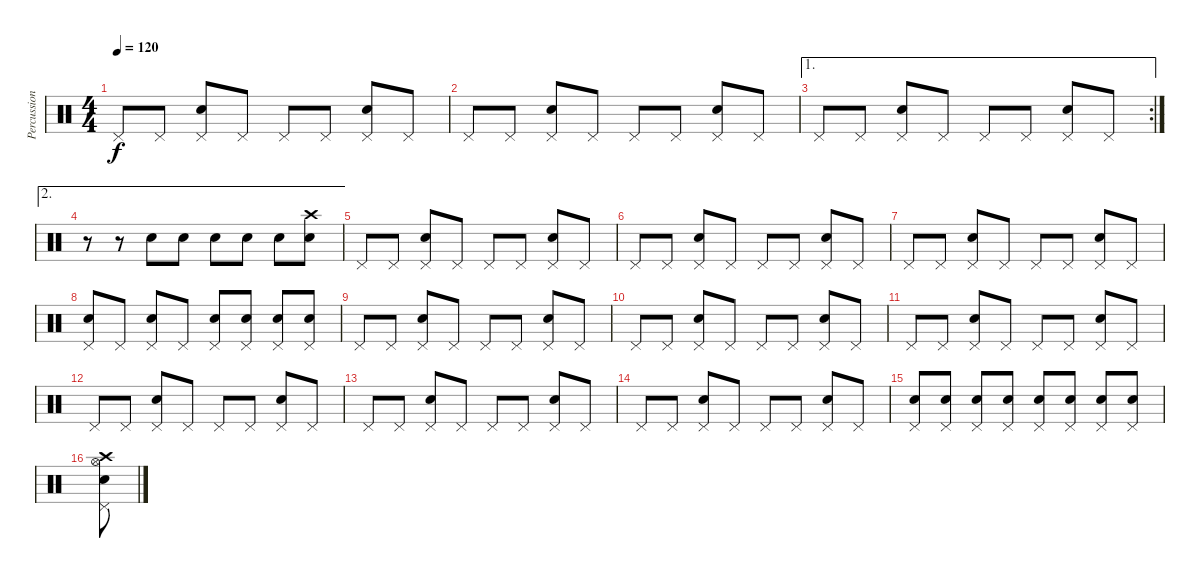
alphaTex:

\track ("Percussions" "Percussion") {instrument percussion}
\staff {score}
\articulation defaults
\ts (4 4)
\tempo 120
\clef neutral
\ks c "Pedal Hi-Hat (hit)".8{dy f} "Pedal Hi-Hat (hit)".8
("Pedal Hi-Hat (hit)" "Electric Snare (hit)").8 "Pedal Hi-Hat (hit)".8 "Pedal Hi-Hat (hit)".8 "Pedal Hi-Hat (hit)".8 ("Pedal Hi-Hat (hit)" "Electric Snare (hit)").8 "Pedal Hi-Hat (hit)".8 |
"Pedal Hi-Hat (hit)".8 "Pedal Hi-Hat (hit)".8 ("Pedal Hi-Hat (hit)" "Electric Snare (hit)").8 "Pedal Hi-Hat (hit)".8 "Pedal Hi-Hat (hit)".8 "Pedal Hi-Hat (hit)".8 ("Pedal Hi-Hat (hit)" "Electric Snare (hit)").8 "Pedal Hi-Hat (hit)".8 |
\ae 1
\rc 2 "Pedal Hi-Hat (hit)".8 "Pedal Hi-Hat (hit)".8
("Pedal Hi-Hat (hit)" "Electric Snare (hit)").8 "Pedal Hi-Hat (hit)".8 "Pedal Hi-Hat (hit)".8 "Pedal Hi-Hat (hit)".8 ("Pedal Hi-Hat (hit)" "Electric Snare (hit)").8 "Pedal Hi-Hat (hit)".8 |
\ae 2
r.8 r.8 "Electric Snare (hit)".8 "Electric Snare (hit)".8 "Electric Snare (hit)".8 "Electric Snare (hit)".8 "Electric Snare (hit)".8 ("Electric Snare (hit)" "Crash high (hit)").8 |
"Pedal Hi-Hat (hit)".8 "Pedal Hi-Hat (hit)".8 ("Pedal Hi-Hat (hit)" "Electric Snare (hit)").8 "Pedal Hi-Hat (hit)".8 "Pedal Hi-Hat (hit)".8 "Pedal Hi-Hat (hit)".8 ("Pedal Hi-Hat (hit)" "Electric Snare (hit)").8 "Pedal Hi-Hat (hit)".8 |
"Pedal Hi-Hat (hit)".8 "Pedal Hi-Hat (hit)".8 ("Pedal Hi-Hat (hit)" "Electric Snare (hit)").8 "Pedal Hi-Hat (hit)".8 "Pedal Hi-Hat (hit)".8 "Pedal Hi-Hat (hit)".8 ("Pedal Hi-Hat (hit)" "Electric Snare (hit)").8 "Pedal Hi-Hat (hit)".8 |
"Pedal Hi-Hat (hit)".8 "Pedal Hi-Hat (hit)".8 ("Pedal Hi-Hat (hit)" "Electric Snare (hit)").8 "Pedal Hi-Hat (hit)".8 "Pedal Hi-Hat (hit)".8 "Pedal Hi-Hat (hit)".8 ("Pedal Hi-Hat (hit)" "Electric Snare (hit)").8 "Pedal Hi-Hat (hit)".8 |
("Pedal Hi-Hat (hit)" "Electric Snare (hit)").8 "Pedal Hi-Hat (hit)".8 ("Pedal Hi-Hat (hit)" "Electric Snare (hit)").8 "Pedal Hi-Hat (hit)".8 ("Pedal Hi-Hat (hit)" "Electric Snare (hit)").8 ("Pedal Hi-Hat (hit)" "Electric Snare (hit)").8 ("Pedal Hi-Hat (hit)" "Electric Snare (hit)").8 ("Pedal Hi-Hat (hit)" "Electric Snare (hit)").8 |
"Pedal Hi-Hat (hit)".8 "Pedal Hi-Hat (hit)".8 ("Pedal Hi-Hat (hit)" "Electric Snare (hit)").8 "Pedal Hi-Hat (hit)".8 "Pedal Hi-Hat (hit)".8 "Pedal Hi-Hat (hit)".8 ("Pedal Hi-Hat (hit)" "Electric Snare (hit)").8 "Pedal Hi-Hat (hit)".8 |
"Pedal Hi-Hat (hit)".8 "Pedal Hi-Hat (hit)".8 ("Pedal Hi-Hat (hit)" "Electric Snare (hit)").8 "Pedal Hi-Hat (hit)".8 "Pedal Hi-Hat (hit)".8 "Pedal Hi-Hat (hit)".8 ("Pedal Hi-Hat (hit)" "Electric Snare (hit)").8 "Pedal Hi-Hat (hit)".8 |
"Pedal Hi-Hat (hit)".8 "Pedal Hi-Hat (hit)".8 ("Pedal Hi-Hat (hit)" "Electric Snare (hit)").8 "Pedal Hi-Hat (hit)".8 "Pedal Hi-Hat (hit)".8 "Pedal Hi-Hat (hit)".8 ("Pedal Hi-Hat (hit)" "Electric Snare (hit)").8 "Pedal Hi-Hat (hit)".8 |
"Pedal Hi-Hat (hit)".8 "Pedal Hi-Hat (hit)".8 ("Pedal Hi-Hat (hit)" "Electric Snare (hit)").8 "Pedal Hi-Hat (hit)".8 "Pedal Hi-Hat (hit)".8 "Pedal Hi-Hat (hit)".8 ("Pedal Hi-Hat (hit)" "Electric Snare (hit)").8 "Pedal Hi-Hat (hit)".8 |
"Pedal Hi-Hat (hit)".8 "Pedal Hi-Hat (hit)".8 ("Pedal Hi-Hat (hit)" "Electric Snare (hit)").8 "Pedal Hi-Hat (hit)".8 "Pedal Hi-Hat (hit)".8 "Pedal Hi-Hat (hit)".8 ("Pedal Hi-Hat (hit)" "Electric Snare (hit)").8 "Pedal Hi-Hat (hit)".8 |
"Pedal Hi-Hat (hit)".8 "Pedal Hi-Hat (hit)".8 ("Pedal Hi-Hat (hit)" "Electric Snare (hit)").8 "Pedal Hi-Hat (hit)".8 "Pedal Hi-Hat (hit)".8 "Pedal Hi-Hat (hit)".8 ("Pedal Hi-Hat (hit)" "Electric Snare (hit)").8 "Pedal Hi-Hat (hit)".8 |
("Pedal Hi-Hat (hit)" "Electric Snare (hit)").8 ("Pedal Hi-Hat (hit)" "Electric Snare (hit)").8 ("Pedal Hi-Hat (hit)" "Electric Snare (hit)").8 ("Pedal Hi-Hat (hit)" "Electric Snare (hit)").8 ("Pedal Hi-Hat (hit)" "Electric Snare (hit)").8 ("Pedal Hi-Hat (hit)" "Electric Snare (hit)").8 ("Pedal Hi-Hat (hit)" "Electric Snare (hit)").8 ("Pedal Hi-Hat (hit)" "Electric Snare (hit)").8 |
("Pedal Hi-Hat (hit)" "Electric Snare (hit)" "Hi-Hat (open)" "Crash high (hit)").8
